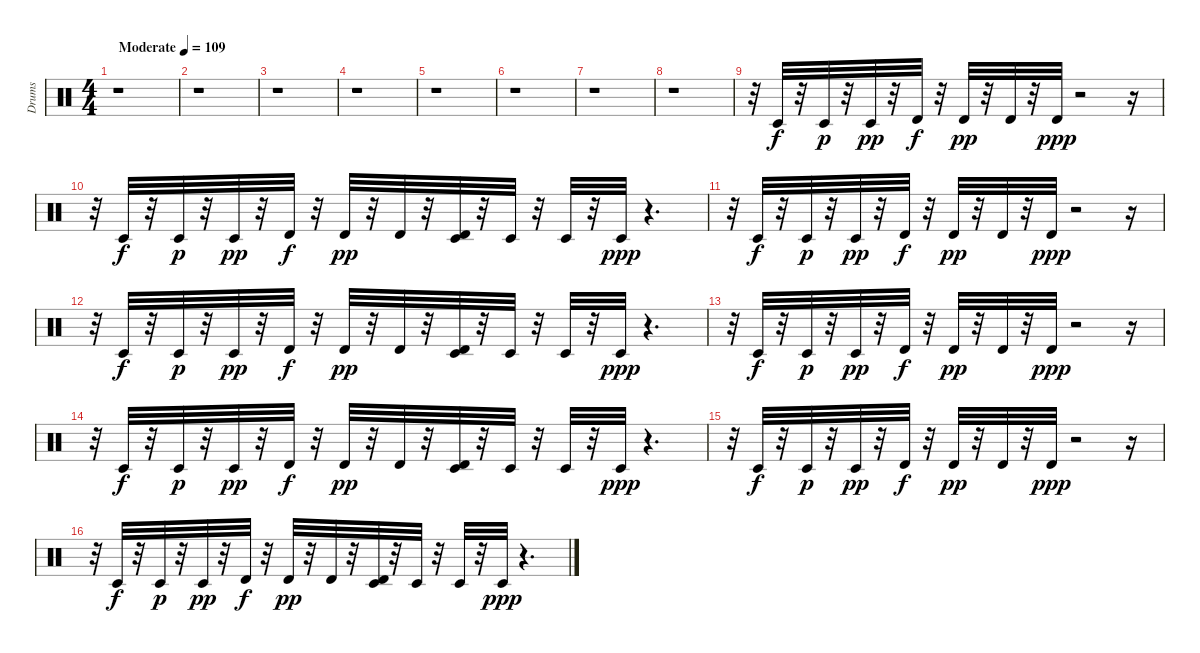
\track ("Drums" "Drums") {instrument percussion}
\staff {score}
\articulation defaults
\ts (4 4)
\tempo (109 "Moderate")
\clef neutral
\ks c
r.1{dy f} |
r.1 |
r.1 |
r.1 |
r.1 |
r.1 |
r.1 |
r.1 |
r.32 "Timbale low (hit)".32 r.32 "Timbale low (hit)".32{dy p} r.32 "Timbale low (hit)".32{dy pp} r.32 "Timbale high (hit)".32{dy f} r.32 "Timbale high (hit)".32{dy pp} r.32 "Timbale high (hit)".32 r.32 "Timbale high (hit)".32{dy ppp} r.2 r.16 |
r.32 "Timbale low (hit)".32{dy f} r.32 "Timbale low (hit)".32{dy p} r.32 "Timbale low (hit)".32{dy pp} r.32 "Timbale high (hit)".32{dy f} r.32 "Timbale high (hit)".32{dy pp} r.32 "Timbale high (hit)".32 r.32 ("Timbale high (hit)" "Timbale low (hit)").32 r.32 "Timbale low (hit)".32 r.32 "Timbale low (hit)".32 r.32 "Timbale low (hit)".32{dy ppp} r.4{d} |
r.32 "Timbale low (hit)".32{dy f} r.32 "Timbale low (hit)".32{dy p} r.32 "Timbale low (hit)".32{dy pp} r.32 "Timbale high (hit)".32{dy f} r.32 "Timbale high (hit)".32{dy pp} r.32 "Timbale high (hit)".32 r.32 "Timbale high (hit)".32{dy ppp} r.2 r.16 |
r.32 "Timbale low (hit)".32{dy f} r.32 "Timbale low (hit)".32{dy p} r.32 "Timbale low (hit)".32{dy pp} r.32 "Timbale high (hit)".32{dy f} r.32 "Timbale high (hit)".32{dy pp} r.32 "Timbale high (hit)".32 r.32 ("Timbale high (hit)" "Timbale low (hit)").32 r.32 "Timbale low (hit)".32 r.32 "Timbale low (hit)".32 r.32 "Timbale low (hit)".32{dy ppp} r.4{d} |
r.32 "Timbale low (hit)".32{dy f} r.32 "Timbale low (hit)".32{dy p} r.32 "Timbale low (hit)".32{dy pp} r.32 "Timbale high (hit)".32{dy f} r.32 "Timbale high (hit)".32{dy pp} r.32 "Timbale high (hit)".32 r.32 "Timbale high (hit)".32{dy ppp} r.2 r.16 |
r.32 "Timbale low (hit)".32{dy f} r.32 "Timbale low (hit)".32{dy p} r.32 "Timbale low (hit)".32{dy pp} r.32 "Timbale high (hit)".32{dy f} r.32 "Timbale high (hit)".32{dy pp} r.32 "Timbale high (hit)".32 r.32 ("Timbale high (hit)" "Timbale low (hit)").32 r.32 "Timbale low (hit)".32 r.32 "Timbale low (hit)".32 r.32 "Timbale low (hit)".32{dy ppp} r.4{d} |
r.32 "Timbale low (hit)".32{dy f} r.32 "Timbale low (hit)".32{dy p} r.32 "Timbale low (hit)".32{dy pp} r.32 "Timbale high (hit)".32{dy f} r.32 "Timbale high (hit)".32{dy pp} r.32 "Timbale high (hit)".32 r.32 "Timbale high (hit)".32{dy ppp} r.2 r.16 |
r.32 "Timbale low (hit)".32{dy f} r.32 "Timbale low (hit)".32{dy p} r.32 "Timbale low (hit)".32{dy pp} r.32 "Timbale high (hit)".32{dy f} r.32 "Timbale high (hit)".32{dy pp} r.32 "Timbale high (hit)".32 r.32 ("Timbale high (hit)" "Timbale low (hit)").32 r.32 "Timbale low (hit)".32 r.32 "Timbale low (hit)".32 r.32 "Timbale low (hit)".32{dy ppp} r.4{d}
